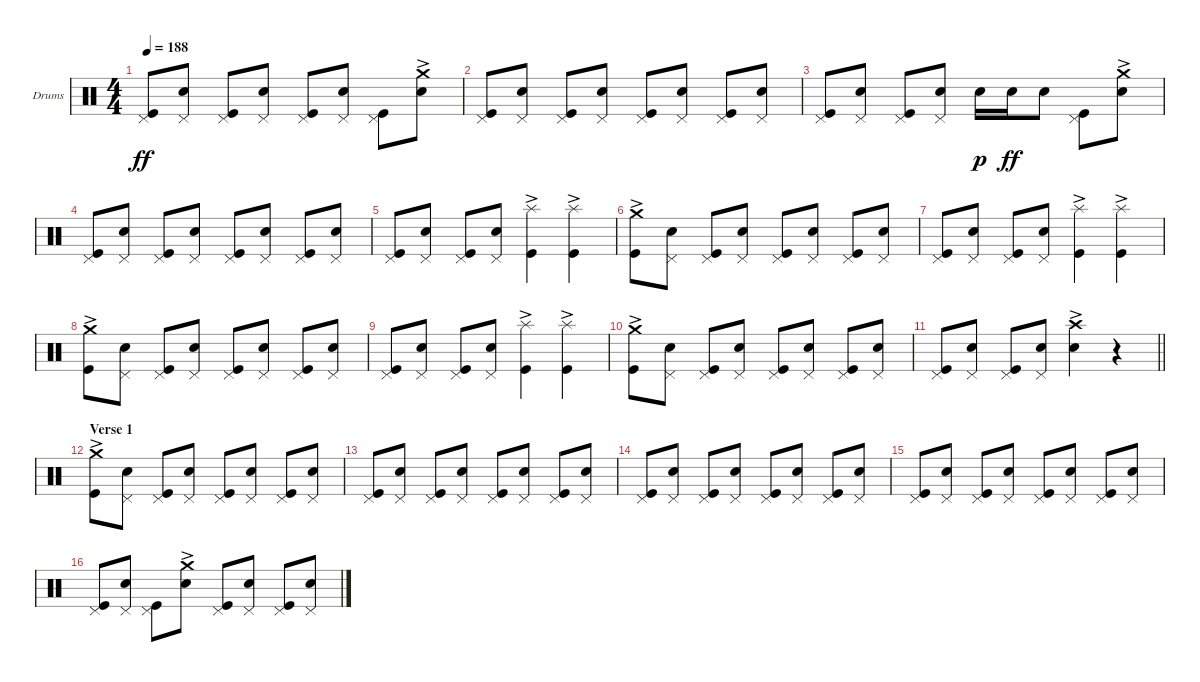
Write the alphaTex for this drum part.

\bracketExtendMode groupsimilarinstruments
\firstSystemTrackNameOrientation horizontal
\otherSystemsTrackNameOrientation horizontal
\track ("Drums" "Drums") {instrument percussion}
\staff {score}
\articulation defaults
\ts (4 4)
\tempo 188
\clef neutral
\ks c
("Kick (hit)" "Pedal Hi-Hat (hit)").8{dy ff} ("Snare (hit) 2" "Pedal Hi-Hat (hit)").8 ("Kick (hit)" "Pedal Hi-Hat (hit)").8 ("Snare (hit) 2" "Pedal Hi-Hat (hit)").8 ("Kick (hit)" "Pedal Hi-Hat (hit)").8 ("Snare (hit) 2" "Pedal Hi-Hat (hit)").8 ("Kick (hit)" "Pedal Hi-Hat (hit)").8 ("Snare (hit) 2" "Crash medium (hit)"{ac}).8 |
("Kick (hit)" "Pedal Hi-Hat (hit)").8 ("Snare (hit) 2" "Pedal Hi-Hat (hit)").8 ("Kick (hit)" "Pedal Hi-Hat (hit)").8 ("Snare (hit) 2" "Pedal Hi-Hat (hit)").8 ("Kick (hit)" "Pedal Hi-Hat (hit)").8 ("Snare (hit) 2" "Pedal Hi-Hat (hit)").8 ("Kick (hit)" "Pedal Hi-Hat (hit)").8 ("Snare (hit) 2" "Pedal Hi-Hat (hit)").8 |
("Kick (hit)" "Pedal Hi-Hat (hit)").8 ("Snare (hit) 2" "Pedal Hi-Hat (hit)").8 ("Kick (hit)" "Pedal Hi-Hat (hit)").8 ("Snare (hit) 2" "Pedal Hi-Hat (hit)").8 "Snare (hit) 2".16{dy p} "Snare (hit) 2".16{dy ff} "Snare (hit) 2".8 ("Kick (hit)" "Pedal Hi-Hat (hit)").8 ("Snare (hit) 2" "Crash medium (hit)"{ac}).8 |
("Kick (hit)" "Pedal Hi-Hat (hit)").8 ("Snare (hit) 2" "Pedal Hi-Hat (hit)").8 ("Kick (hit)" "Pedal Hi-Hat (hit)").8 ("Snare (hit) 2" "Pedal Hi-Hat (hit)").8 ("Kick (hit)" "Pedal Hi-Hat (hit)").8 ("Snare (hit) 2" "Pedal Hi-Hat (hit)").8 ("Kick (hit)" "Pedal Hi-Hat (hit)").8 ("Snare (hit) 2" "Pedal Hi-Hat (hit)").8 |
("Kick (hit)" "Pedal Hi-Hat (hit)").8 ("Snare (hit) 2" "Pedal Hi-Hat (hit)").8 ("Kick (hit)" "Pedal Hi-Hat (hit)").8 ("Snare (hit) 2" "Pedal Hi-Hat (hit)").8 ("Kick (hit)" "Splash (hit)"{ac}).4 ("Kick (hit)" "Splash (hit)"{ac}).4 |
("Kick (hit)" "Crash medium (hit)"{ac}).8 ("Snare (hit) 2" "Pedal Hi-Hat (hit)").8 ("Kick (hit)" "Pedal Hi-Hat (hit)").8 ("Snare (hit) 2" "Pedal Hi-Hat (hit)").8 ("Kick (hit)" "Pedal Hi-Hat (hit)").8 ("Snare (hit) 2" "Pedal Hi-Hat (hit)").8 ("Kick (hit)" "Pedal Hi-Hat (hit)").8 ("Snare (hit) 2" "Pedal Hi-Hat (hit)").8 |
("Kick (hit)" "Pedal Hi-Hat (hit)").8 ("Snare (hit) 2" "Pedal Hi-Hat (hit)").8 ("Kick (hit)" "Pedal Hi-Hat (hit)").8 ("Snare (hit) 2" "Pedal Hi-Hat (hit)").8 ("Kick (hit)" "Splash (hit)"{ac}).4 ("Kick (hit)" "Splash (hit)"{ac}).4 |
("Kick (hit)" "Crash medium (hit)"{ac}).8 ("Snare (hit) 2" "Pedal Hi-Hat (hit)").8 ("Kick (hit)" "Pedal Hi-Hat (hit)").8 ("Snare (hit) 2" "Pedal Hi-Hat (hit)").8 ("Kick (hit)" "Pedal Hi-Hat (hit)").8 ("Snare (hit) 2" "Pedal Hi-Hat (hit)").8 ("Kick (hit)" "Pedal Hi-Hat (hit)").8 ("Snare (hit) 2" "Pedal Hi-Hat (hit)").8 |
("Kick (hit)" "Pedal Hi-Hat (hit)").8 ("Snare (hit) 2" "Pedal Hi-Hat (hit)").8 ("Kick (hit)" "Pedal Hi-Hat (hit)").8 ("Snare (hit) 2" "Pedal Hi-Hat (hit)").8 ("Kick (hit)" "Splash (hit)"{ac}).4 ("Kick (hit)" "Splash (hit)"{ac}).4 |
("Kick (hit)" "Crash medium (hit)"{ac}).8 ("Snare (hit) 2" "Pedal Hi-Hat (hit)").8 ("Kick (hit)" "Pedal Hi-Hat (hit)").8 ("Snare (hit) 2" "Pedal Hi-Hat (hit)").8 ("Kick (hit)" "Pedal Hi-Hat (hit)").8 ("Snare (hit) 2" "Pedal Hi-Hat (hit)").8 ("Kick (hit)" "Pedal Hi-Hat (hit)").8 ("Snare (hit) 2" "Pedal Hi-Hat (hit)").8 |
\barLineRight lightlight
("Kick (hit)" "Pedal Hi-Hat (hit)").8 ("Snare (hit) 2" "Pedal Hi-Hat (hit)").8 ("Kick (hit)" "Pedal Hi-Hat (hit)").8 ("Snare (hit) 2" "Pedal Hi-Hat (hit)").8 ("Snare (hit) 2" "Crash high (hit)"{ac}).4 r.4 |
\section ("" "Verse 1")
("Kick (hit)" "Crash medium (hit)"{ac}).8 ("Snare (hit) 2" "Pedal Hi-Hat (hit)").8 ("Kick (hit)" "Pedal Hi-Hat (hit)").8 ("Snare (hit) 2" "Pedal Hi-Hat (hit)").8 ("Kick (hit)" "Pedal Hi-Hat (hit)").8 ("Snare (hit) 2" "Pedal Hi-Hat (hit)").8 ("Kick (hit)" "Pedal Hi-Hat (hit)").8 ("Snare (hit) 2" "Pedal Hi-Hat (hit)").8 |
("Kick (hit)" "Pedal Hi-Hat (hit)").8 ("Snare (hit) 2" "Pedal Hi-Hat (hit)").8 ("Kick (hit)" "Pedal Hi-Hat (hit)").8 ("Snare (hit) 2" "Pedal Hi-Hat (hit)").8 ("Kick (hit)" "Pedal Hi-Hat (hit)").8 ("Snare (hit) 2" "Pedal Hi-Hat (hit)").8 ("Kick (hit)" "Pedal Hi-Hat (hit)").8 ("Snare (hit) 2" "Pedal Hi-Hat (hit)").8 |
("Kick (hit)" "Pedal Hi-Hat (hit)").8 ("Snare (hit) 2" "Pedal Hi-Hat (hit)").8 ("Kick (hit)" "Pedal Hi-Hat (hit)").8 ("Snare (hit) 2" "Pedal Hi-Hat (hit)").8 ("Kick (hit)" "Pedal Hi-Hat (hit)").8 ("Snare (hit) 2" "Pedal Hi-Hat (hit)").8 ("Kick (hit)" "Pedal Hi-Hat (hit)").8 ("Snare (hit) 2" "Pedal Hi-Hat (hit)").8 |
("Kick (hit)" "Pedal Hi-Hat (hit)").8 ("Snare (hit) 2" "Pedal Hi-Hat (hit)").8 ("Kick (hit)" "Pedal Hi-Hat (hit)").8 ("Snare (hit) 2" "Pedal Hi-Hat (hit)").8 ("Kick (hit)" "Pedal Hi-Hat (hit)").8 ("Snare (hit) 2" "Pedal Hi-Hat (hit)").8 ("Kick (hit)" "Pedal Hi-Hat (hit)").8 ("Snare (hit) 2" "Pedal Hi-Hat (hit)").8 |
("Kick (hit)" "Pedal Hi-Hat (hit)").8 ("Snare (hit) 2" "Pedal Hi-Hat (hit)").8 ("Kick (hit)" "Pedal Hi-Hat (hit)").8 ("Snare (hit) 2" "Crash medium (hit)"{ac}).8 ("Kick (hit)" "Pedal Hi-Hat (hit)").8 ("Snare (hit) 2" "Pedal Hi-Hat (hit)").8 ("Kick (hit)" "Pedal Hi-Hat (hit)").8 ("Snare (hit) 2" "Pedal Hi-Hat (hit)").8
